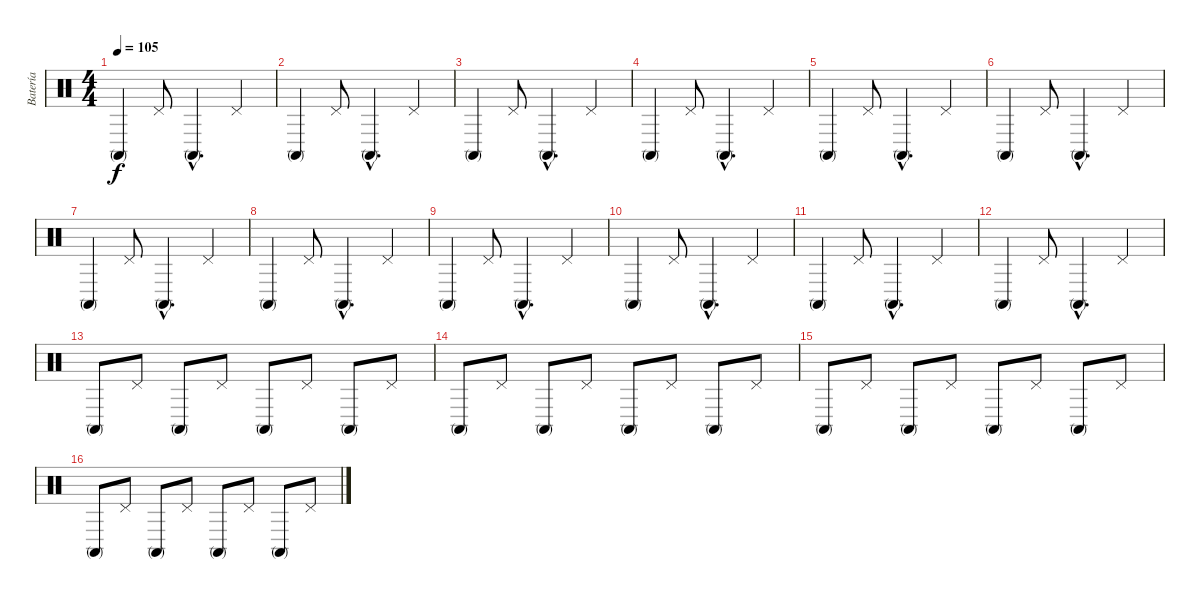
\track ("Batería" "Batería") {instrument percussion}
\staff {score}
\articulation defaults
\ts (4 4)
\tempo 105
\clef neutral
\ks c "Conga high (mute)".4{dy f} "Pedal Hi-Hat (hit)".8 "Conga high (mute)"{hac}.4{d} "Pedal Hi-Hat (hit)".4
|
"Conga high (mute)".4 "Pedal Hi-Hat (hit)".8 "Conga high (mute)"{hac}.4{d} "Pedal Hi-Hat (hit)".4 |
"Conga high (mute)".4 "Pedal Hi-Hat (hit)".8 "Conga high (mute)"{hac}.4{d} "Pedal Hi-Hat (hit)".4 |
"Conga high (mute)".4 "Pedal Hi-Hat (hit)".8 "Conga high (mute)"{hac}.4{d} "Pedal Hi-Hat (hit)".4 |
"Conga high (mute)".4 "Pedal Hi-Hat (hit)".8 "Conga high (mute)"{hac}.4{d} "Pedal Hi-Hat (hit)".4 |
"Conga high (mute)".4 "Pedal Hi-Hat (hit)".8 "Conga high (mute)"{hac}.4{d} "Pedal Hi-Hat (hit)".4 |
"Conga high (mute)".4 "Pedal Hi-Hat (hit)".8 "Conga high (mute)"{hac}.4{d} "Pedal Hi-Hat (hit)".4 |
"Conga high (mute)".4 "Pedal Hi-Hat (hit)".8 "Conga high (mute)"{hac}.4{d} "Pedal Hi-Hat (hit)".4 |
"Conga high (mute)".4 "Pedal Hi-Hat (hit)".8 "Conga high (mute)"{hac}.4{d} "Pedal Hi-Hat (hit)".4 |
"Conga high (mute)".4 "Pedal Hi-Hat (hit)".8 "Conga high (mute)"{hac}.4{d} "Pedal Hi-Hat (hit)".4 |
"Conga high (mute)".4 "Pedal Hi-Hat (hit)".8 "Conga high (mute)"{hac}.4{d} "Pedal Hi-Hat (hit)".4 |
"Conga high (mute)".4 "Pedal Hi-Hat (hit)".8 "Conga high (mute)"{hac}.4{d} "Pedal Hi-Hat (hit)".4 |
"Conga high (mute)".8 "Pedal Hi-Hat (hit)".8 "Conga high (mute)".8 "Pedal Hi-Hat (hit)".8 "Conga high (mute)".8 "Pedal Hi-Hat (hit)".8 "Conga high (mute)".8 "Pedal Hi-Hat (hit)".8 |
"Conga high (mute)".8 "Pedal Hi-Hat (hit)".8 "Conga high (mute)".8 "Pedal Hi-Hat (hit)".8 "Conga high (mute)".8 "Pedal Hi-Hat (hit)".8 "Conga high (mute)".8 "Pedal Hi-Hat (hit)".8 |
"Conga high (mute)".8 "Pedal Hi-Hat (hit)".8 "Conga high (mute)".8 "Pedal Hi-Hat (hit)".8 "Conga high (mute)".8 "Pedal Hi-Hat (hit)".8 "Conga high (mute)".8 "Pedal Hi-Hat (hit)".8 |
"Conga high (mute)".8 "Pedal Hi-Hat (hit)".8 "Conga high (mute)".8 "Pedal Hi-Hat (hit)".8 "Conga high (mute)".8 "Pedal Hi-Hat (hit)".8 "Conga high (mute)".8 "Pedal Hi-Hat (hit)".8
